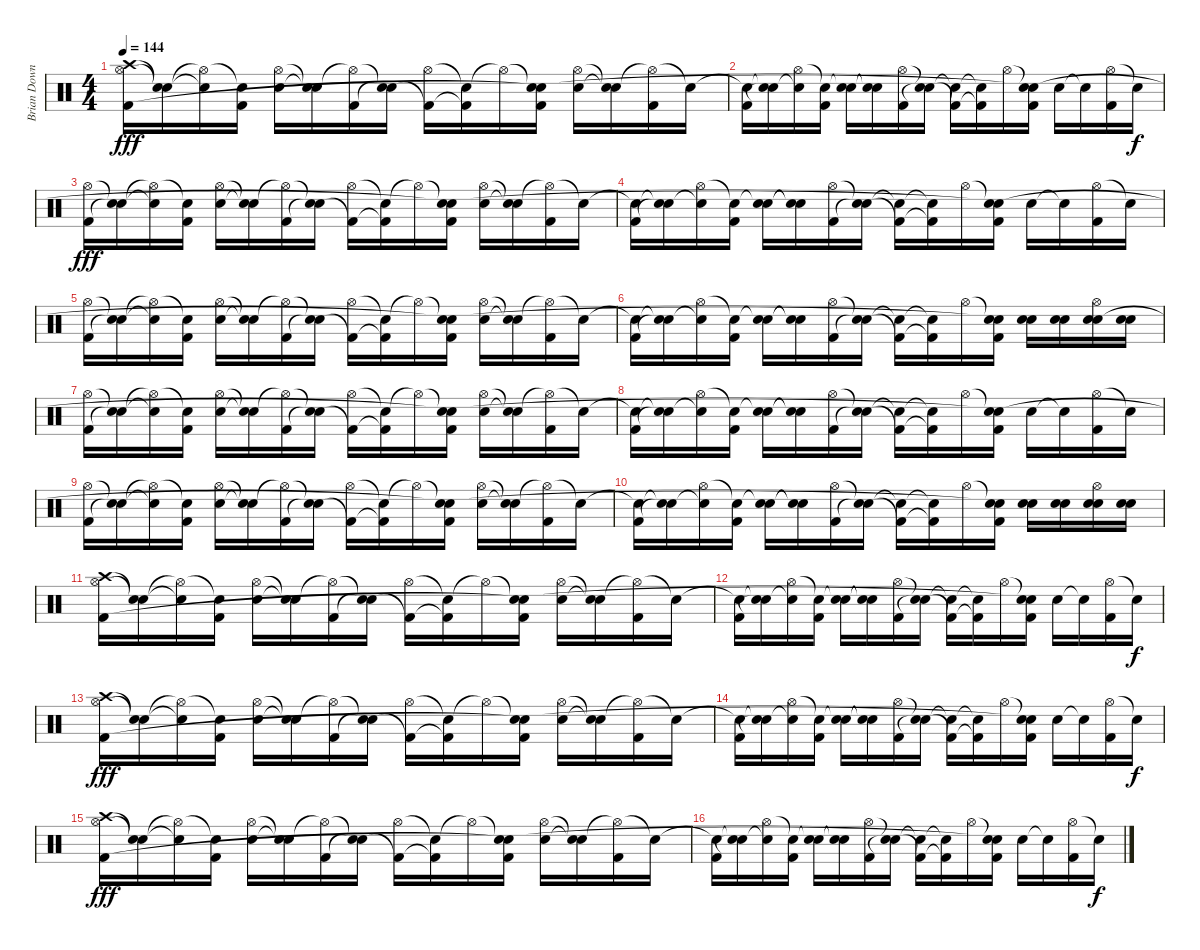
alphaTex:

\track ("Brian Downey" "Brian Down") {instrument percussion}
\staff {score}
\articulation defaults
\ts (4 4)
\tempo 144
\clef neutral
\ks c
("Crash high (hit)" "Hi-Hat (open)" "Kick (hit) 2").16{dy fff} ("Snare (hit)"{t} "Snare (hit)"{t}).16 ("Hi-Hat (open)"{t} "Snare (hit)"{t}).16 ("Snare (hit)"{t} "Kick (hit) 2").16 ("Hi-Hat (open)" "Electric Snare (hit)").16 ("Snare (hit)"{t} "Snare (hit)"{t}).16 ("Hi-Hat (open)"{t} "Kick (hit) 2").16 ("Snare (hit)"{t} "Snare (hit)"{t}).16 ("Hi-Hat (open)" "Kick (hit) 2"{t}).16 ("Snare (hit)"{t} "Kick (hit) 2"{t}).16 "Hi-Hat (open)"{t}.16 ("Snare (hit)"{t} "Kick (hit) 2" "Snare (hit)"{t}).16 ("Hi-Hat (open)" "Electric Snare (hit)").16 ("Snare (hit)"{t} "Snare (hit)"{t}).16 ("Hi-Hat (open)"{t} "Kick (hit) 2").16 "Snare (hit)"{t}.16 |
("Snare (hit)"{t} "Kick (hit) 2").16 ("Snare (hit)"{t} "Snare (hit)"{t}).16 ("Hi-Hat (open)" "Snare (hit)"{t}).16 ("Snare (hit)"{t} "Kick (hit) 2").16 ("Snare (hit)"{t} "Electric Snare (hit)").16 ("Snare (hit)"{t} "Snare (hit)"{t}).16 ("Hi-Hat (open)" "Kick (hit) 2").16 ("Snare (hit)"{t} "Snare (hit)"{t}).16 ("Snare (hit)"{t} "Kick (hit) 2"{t}).16 ("Snare (hit)"{t} "Kick (hit) 2"{t}).16 "Hi-Hat (open)".16 ("Snare (hit)"{t} "Kick (hit) 2" "Snare (hit)"{t}).16 "Electric Snare (hit)".16 "Snare (hit)"{t}.16 ("Hi-Hat (open)" "Kick (hit) 2").16 "Snare (hit)"{t}.16{dy f} |
("Hi-Hat (open)" "Kick (hit) 2").16{dy fff} ("Snare (hit)"{t} "Snare (hit)"{t}).16 ("Hi-Hat (open)"{t} "Snare (hit)"{t}).16 ("Snare (hit)"{t} "Kick (hit) 2").16 ("Hi-Hat (open)" "Electric Snare (hit)").16 ("Snare (hit)"{t} "Snare (hit)"{t}).16 ("Hi-Hat (open)"{t} "Kick (hit) 2").16 ("Snare (hit)"{t} "Snare (hit)"{t}).16 ("Hi-Hat (open)" "Kick (hit) 2"{t}).16 ("Snare (hit)"{t} "Kick (hit) 2"{t}).16 "Hi-Hat (open)"{t}.16 ("Snare (hit)"{t} "Kick (hit) 2" "Snare (hit)"{t}).16 ("Hi-Hat (open)" "Electric Snare (hit)").16 ("Snare (hit)"{t} "Snare (hit)"{t}).16 ("Hi-Hat (open)"{t} "Kick (hit) 2").16 "Snare (hit)"{t}.16 |
("Snare (hit)"{t} "Kick (hit) 2").16 ("Snare (hit)"{t} "Snare (hit)"{t}).16 ("Hi-Hat (open)" "Snare (hit)"{t}).16 ("Snare (hit)"{t} "Kick (hit) 2").16 ("Snare (hit)"{t} "Electric Snare (hit)").16 ("Snare (hit)"{t} "Snare (hit)"{t}).16 ("Hi-Hat (open)" "Kick (hit) 2").16 ("Snare (hit)"{t} "Snare (hit)"{t}).16 ("Snare (hit)"{t} "Kick (hit) 2"{t}).16 ("Snare (hit)"{t} "Kick (hit) 2"{t}).16 "Hi-Hat (open)".16 ("Snare (hit)"{t} "Kick (hit) 2" "Snare (hit)"{t}).16 "Electric Snare (hit)".16 "Snare (hit)"{t}.16 ("Hi-Hat (open)" "Kick (hit) 2").16 "Snare (hit)"{t}.16 |
("Hi-Hat (open)" "Kick (hit) 2").16 ("Snare (hit)"{t} "Snare (hit)"{t}).16 ("Hi-Hat (open)"{t} "Snare (hit)"{t}).16 ("Snare (hit)"{t} "Kick (hit) 2").16 ("Hi-Hat (open)" "Electric Snare (hit)").16 ("Snare (hit)"{t} "Snare (hit)"{t}).16 ("Hi-Hat (open)"{t} "Kick (hit) 2").16 ("Snare (hit)"{t} "Snare (hit)"{t}).16 ("Hi-Hat (open)" "Kick (hit) 2"{t}).16 ("Snare (hit)"{t} "Kick (hit) 2"{t}).16 "Hi-Hat (open)"{t}.16 ("Snare (hit)"{t} "Kick (hit) 2" "Snare (hit)"{t}).16 ("Hi-Hat (open)" "Electric Snare (hit)").16 ("Snare (hit)"{t} "Snare (hit)"{t}).16 ("Hi-Hat (open)"{t} "Kick (hit) 2").16 "Snare (hit)"{t}.16 |
("Snare (hit)"{t} "Kick (hit) 2").16 ("Snare (hit)"{t} "Snare (hit)"{t}).16 ("Hi-Hat (open)" "Snare (hit)"{t}).16 ("Snare (hit)"{t} "Kick (hit) 2").16 ("Snare (hit)"{t} "Electric Snare (hit)").16 ("Snare (hit)"{t} "Snare (hit)"{t}).16 ("Hi-Hat (open)" "Kick (hit) 2").16 ("Snare (hit)"{t} "Snare (hit)"{t}).16 ("Snare (hit)"{t} "Kick (hit) 2"{t}).16 ("Snare (hit)"{t} "Kick (hit) 2"{t}).16 "Hi-Hat (open)".16 ("Snare (hit)"{t} "Kick (hit) 2" "Snare (hit)"{t}).16 ("Electric Snare (hit)" "Snare (hit) 2").16 ("Electric Snare (hit)" "Snare (hit) 2").16 ("Hi-Hat (open)" "Electric Snare (hit)" "Snare (hit) 2").16 ("Electric Snare (hit)" "Snare (hit) 2").16 |
("Hi-Hat (open)" "Kick (hit) 2").16 ("Snare (hit)"{t} "Snare (hit)"{t}).16 ("Hi-Hat (open)"{t} "Snare (hit)"{t}).16 ("Snare (hit)"{t} "Kick (hit) 2").16 ("Hi-Hat (open)" "Electric Snare (hit)").16 ("Snare (hit)"{t} "Snare (hit)"{t}).16 ("Hi-Hat (open)"{t} "Kick (hit) 2").16 ("Snare (hit)"{t} "Snare (hit)"{t}).16 ("Hi-Hat (open)" "Kick (hit) 2"{t}).16 ("Snare (hit)"{t} "Kick (hit) 2"{t}).16 "Hi-Hat (open)"{t}.16 ("Snare (hit)"{t} "Kick (hit) 2" "Snare (hit)"{t}).16 ("Hi-Hat (open)" "Electric Snare (hit)").16 ("Snare (hit)"{t} "Snare (hit)"{t}).16 ("Hi-Hat (open)"{t} "Kick (hit) 2").16 "Snare (hit)"{t}.16 |
("Snare (hit)"{t} "Kick (hit) 2").16 ("Snare (hit)"{t} "Snare (hit)"{t}).16 ("Hi-Hat (open)" "Snare (hit)"{t}).16 ("Snare (hit)"{t} "Kick (hit) 2").16 ("Snare (hit)"{t} "Electric Snare (hit)").16 ("Snare (hit)"{t} "Snare (hit)"{t}).16 ("Hi-Hat (open)" "Kick (hit) 2").16 ("Snare (hit)"{t} "Snare (hit)"{t}).16 ("Snare (hit)"{t} "Kick (hit) 2"{t}).16 ("Snare (hit)"{t} "Kick (hit) 2"{t}).16 "Hi-Hat (open)".16 ("Snare (hit)"{t} "Kick (hit) 2" "Snare (hit)"{t}).16 "Electric Snare (hit)".16 "Snare (hit)"{t}.16 ("Hi-Hat (open)" "Kick (hit) 2").16 "Snare (hit)"{t}.16 |
("Hi-Hat (open)" "Kick (hit) 2").16 ("Snare (hit)"{t} "Snare (hit)"{t}).16 ("Hi-Hat (open)"{t} "Snare (hit)"{t}).16 ("Snare (hit)"{t} "Kick (hit) 2").16 ("Hi-Hat (open)" "Electric Snare (hit)").16 ("Snare (hit)"{t} "Snare (hit)"{t}).16 ("Hi-Hat (open)"{t} "Kick (hit) 2").16 ("Snare (hit)"{t} "Snare (hit)"{t}).16 ("Hi-Hat (open)" "Kick (hit) 2"{t}).16 ("Snare (hit)"{t} "Kick (hit) 2"{t}).16 "Hi-Hat (open)"{t}.16 ("Snare (hit)"{t} "Kick (hit) 2" "Snare (hit)"{t}).16 ("Hi-Hat (open)" "Electric Snare (hit)").16 ("Snare (hit)"{t} "Snare (hit)"{t}).16 ("Hi-Hat (open)"{t} "Kick (hit) 2").16 "Snare (hit)"{t}.16 |
("Snare (hit)"{t} "Kick (hit) 2").16 ("Snare (hit)"{t} "Snare (hit)"{t}).16 ("Hi-Hat (open)" "Snare (hit)"{t}).16 ("Snare (hit)"{t} "Kick (hit) 2").16 ("Snare (hit)"{t} "Electric Snare (hit)").16 ("Snare (hit)"{t} "Snare (hit)"{t}).16 ("Hi-Hat (open)" "Kick (hit) 2").16 ("Snare (hit)"{t} "Snare (hit)"{t}).16 ("Snare (hit)"{t} "Kick (hit) 2"{t}).16 ("Snare (hit)"{t} "Kick (hit) 2"{t}).16 "Hi-Hat (open)".16 ("Snare (hit)"{t} "Kick (hit) 2" "Snare (hit)"{t}).16 ("Electric Snare (hit)" "Snare (hit) 2").16 ("Electric Snare (hit)" "Snare (hit) 2").16 ("Hi-Hat (open)" "Electric Snare (hit)" "Snare (hit) 2").16 ("Electric Snare (hit)" "Snare (hit) 2").16 |
("Crash high (hit)" "Hi-Hat (open)" "Kick (hit) 2").16 ("Snare (hit)"{t} "Snare (hit)"{t}).16 ("Hi-Hat (open)"{t} "Snare (hit)"{t}).16 ("Snare (hit)"{t} "Kick (hit) 2").16 ("Hi-Hat (open)" "Electric Snare (hit)").16 ("Snare (hit)"{t} "Snare (hit)"{t}).16 ("Hi-Hat (open)"{t} "Kick (hit) 2").16 ("Snare (hit)"{t} "Snare (hit)"{t}).16 ("Hi-Hat (open)" "Kick (hit) 2"{t}).16 ("Snare (hit)"{t} "Kick (hit) 2"{t}).16 "Hi-Hat (open)"{t}.16 ("Snare (hit)"{t} "Kick (hit) 2" "Snare (hit)"{t}).16 ("Hi-Hat (open)" "Electric Snare (hit)").16 ("Snare (hit)"{t} "Snare (hit)"{t}).16 ("Hi-Hat (open)"{t} "Kick (hit) 2").16 "Snare (hit)"{t}.16 |
("Snare (hit)"{t} "Kick (hit) 2").16 ("Snare (hit)"{t} "Snare (hit)"{t}).16 ("Hi-Hat (open)" "Snare (hit)"{t}).16 ("Snare (hit)"{t} "Kick (hit) 2").16 ("Snare (hit)"{t} "Electric Snare (hit)").16 ("Snare (hit)"{t} "Snare (hit)"{t}).16 ("Hi-Hat (open)" "Kick (hit) 2").16 ("Snare (hit)"{t} "Snare (hit)"{t}).16 ("Snare (hit)"{t} "Kick (hit) 2"{t}).16 ("Snare (hit)"{t} "Kick (hit) 2"{t}).16 "Hi-Hat (open)".16 ("Snare (hit)"{t} "Kick (hit) 2" "Snare (hit)"{t}).16 "Electric Snare (hit)".16 "Snare (hit)"{t}.16 ("Hi-Hat (open)" "Kick (hit) 2").16 "Snare (hit)"{t}.16{dy f} |
("Crash high (hit)" "Hi-Hat (open)" "Kick (hit) 2").16{dy fff} ("Snare (hit)"{t} "Snare (hit)"{t}).16 ("Hi-Hat (open)"{t} "Snare (hit)"{t}).16 ("Snare (hit)"{t} "Kick (hit) 2").16 ("Hi-Hat (open)" "Electric Snare (hit)").16 ("Snare (hit)"{t} "Snare (hit)"{t}).16 ("Hi-Hat (open)"{t} "Kick (hit) 2").16 ("Snare (hit)"{t} "Snare (hit)"{t}).16 ("Hi-Hat (open)" "Kick (hit) 2"{t}).16 ("Snare (hit)"{t} "Kick (hit) 2"{t}).16 "Hi-Hat (open)"{t}.16 ("Snare (hit)"{t} "Kick (hit) 2" "Snare (hit)"{t}).16 ("Hi-Hat (open)" "Electric Snare (hit)").16 ("Snare (hit)"{t} "Snare (hit)"{t}).16 ("Hi-Hat (open)"{t} "Kick (hit) 2").16 "Snare (hit)"{t}.16 |
("Snare (hit)"{t} "Kick (hit) 2").16 ("Snare (hit)"{t} "Snare (hit)"{t}).16 ("Hi-Hat (open)" "Snare (hit)"{t}).16 ("Snare (hit)"{t} "Kick (hit) 2").16 ("Snare (hit)"{t} "Electric Snare (hit)").16 ("Snare (hit)"{t} "Snare (hit)"{t}).16 ("Hi-Hat (open)" "Kick (hit) 2").16 ("Snare (hit)"{t} "Snare (hit)"{t}).16 ("Snare (hit)"{t} "Kick (hit) 2"{t}).16 ("Snare (hit)"{t} "Kick (hit) 2"{t}).16 "Hi-Hat (open)".16 ("Snare (hit)"{t} "Kick (hit) 2" "Snare (hit)"{t}).16 "Electric Snare (hit)".16 "Snare (hit)"{t}.16 ("Hi-Hat (open)" "Kick (hit) 2").16 "Snare (hit)"{t}.16{dy f} |
("Crash high (hit)" "Hi-Hat (open)" "Kick (hit) 2").16{dy fff} ("Snare (hit)"{t} "Snare (hit)"{t}).16 ("Hi-Hat (open)"{t} "Snare (hit)"{t}).16 ("Snare (hit)"{t} "Kick (hit) 2").16 ("Hi-Hat (open)" "Electric Snare (hit)").16 ("Snare (hit)"{t} "Snare (hit)"{t}).16 ("Hi-Hat (open)"{t} "Kick (hit) 2").16 ("Snare (hit)"{t} "Snare (hit)"{t}).16 ("Hi-Hat (open)" "Kick (hit) 2"{t}).16 ("Snare (hit)"{t} "Kick (hit) 2"{t}).16 "Hi-Hat (open)"{t}.16 ("Snare (hit)"{t} "Kick (hit) 2" "Snare (hit)"{t}).16 ("Hi-Hat (open)" "Electric Snare (hit)").16 ("Snare (hit)"{t} "Snare (hit)"{t}).16 ("Hi-Hat (open)"{t} "Kick (hit) 2").16 "Snare (hit)"{t}.16 |
("Snare (hit)"{t} "Kick (hit) 2").16 ("Snare (hit)"{t} "Snare (hit)"{t}).16 ("Hi-Hat (open)" "Snare (hit)"{t}).16 ("Snare (hit)"{t} "Kick (hit) 2").16 ("Snare (hit)"{t} "Electric Snare (hit)").16 ("Snare (hit)"{t} "Snare (hit)"{t}).16 ("Hi-Hat (open)" "Kick (hit) 2").16 ("Snare (hit)"{t} "Snare (hit)"{t}).16 ("Snare (hit)"{t} "Kick (hit) 2"{t}).16 ("Snare (hit)"{t} "Kick (hit) 2"{t}).16 "Hi-Hat (open)".16 ("Snare (hit)"{t} "Kick (hit) 2" "Snare (hit)"{t}).16 "Electric Snare (hit)".16 "Snare (hit)"{t}.16 ("Hi-Hat (open)" "Kick (hit) 2").16 "Snare (hit)"{t}.16{dy f}
